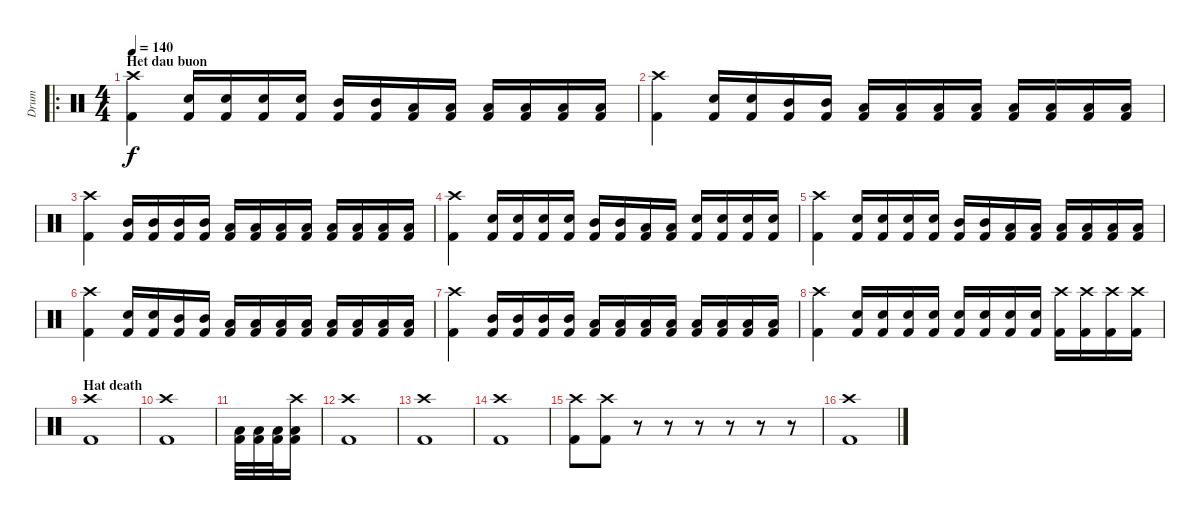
\track ("Drum" "Drum") {instrument percussion}
\staff {score}
\articulation defaults
\ro
\ts (4 4)
\section ("" "Het dau buon")
\tempo 140
\clef neutral
\ks c
("Crash high (hit)" "Kick (hit) 2").4{dy f} ("Snare (hit) 2" "Kick (hit) 2").16 ("Snare (hit) 2" "Kick (hit) 2").16 ("Snare (hit) 2" "Kick (hit) 2").16 ("Snare (hit) 2" "Kick (hit) 2").16 ("Mid Tom (hit)" "Kick (hit) 2").16 ("Mid Tom (hit)" "Kick (hit) 2").16 ("Low Tom (hit)" "Kick (hit) 2").16 ("Low Tom (hit)" "Kick (hit) 2").16 ("Low Floor Tom (hit)" "Kick (hit) 2").16 ("Low Floor Tom (hit)" "Kick (hit) 2").16 ("Low Floor Tom (hit)" "Kick (hit) 2").16 ("Low Floor Tom (hit)" "Kick (hit) 2").16 |
("Crash high (hit)" "Kick (hit) 2").4 ("Snare (hit) 2" "Kick (hit) 2").16 ("Snare (hit) 2" "Kick (hit) 2").16 ("Mid Tom (hit)" "Kick (hit) 2").16 ("Mid Tom (hit)" "Kick (hit) 2").16 ("Low Tom (hit)" "Kick (hit) 2").16 ("Low Tom (hit)" "Kick (hit) 2").16 ("Low Tom (hit)" "Kick (hit) 2").16 ("Low Tom (hit)" "Kick (hit) 2").16 ("Low Floor Tom (hit)" "Kick (hit) 2").16 ("Low Floor Tom (hit)" "Kick (hit) 2").16 ("Low Floor Tom (hit)" "Kick (hit) 2").16 ("Low Floor Tom (hit)" "Kick (hit) 2").16 |
("Crash high (hit)" "Kick (hit) 2").4 ("Mid Tom (hit)" "Kick (hit) 2").16 ("Mid Tom (hit)" "Kick (hit) 2").16 ("Mid Tom (hit)" "Kick (hit) 2").16 ("Mid Tom (hit)" "Kick (hit) 2").16 ("Low Tom (hit)" "Kick (hit) 2").16 ("Low Tom (hit)" "Kick (hit) 2").16 ("Low Tom (hit)" "Kick (hit) 2").16 ("Low Tom (hit)" "Kick (hit) 2").16 ("Low Floor Tom (hit)" "Kick (hit) 2").16 ("Low Floor Tom (hit)" "Kick (hit) 2").16 ("Low Floor Tom (hit)" "Kick (hit) 2").16 ("Low Floor Tom (hit)" "Kick (hit) 2").16 |
("Crash high (hit)" "Kick (hit) 2").4 ("Snare (hit) 2" "Kick (hit) 2").16 ("Snare (hit) 2" "Kick (hit) 2").16 ("Snare (hit) 2" "Kick (hit) 2").16 ("Snare (hit) 2" "Kick (hit) 2").16 ("Mid Tom (hit)" "Kick (hit) 2").16 ("Mid Tom (hit)" "Kick (hit) 2").16 ("Low Tom (hit)" "Kick (hit) 2").16 ("Low Tom (hit)" "Kick (hit) 2").16 ("Snare (hit) 2" "Kick (hit) 2").16 ("Snare (hit) 2" "Kick (hit) 2").16 ("Snare (hit) 2" "Kick (hit) 2").16 ("Snare (hit) 2" "Kick (hit) 2").16 |
("Crash high (hit)" "Kick (hit) 2").4 ("Snare (hit) 2" "Kick (hit) 2").16 ("Snare (hit) 2" "Kick (hit) 2").16 ("Snare (hit) 2" "Kick (hit) 2").16 ("Snare (hit) 2" "Kick (hit) 2").16 ("Mid Tom (hit)" "Kick (hit) 2").16 ("Mid Tom (hit)" "Kick (hit) 2").16 ("Low Tom (hit)" "Kick (hit) 2").16 ("Low Tom (hit)" "Kick (hit) 2").16 ("Low Floor Tom (hit)" "Kick (hit) 2").16 ("Low Floor Tom (hit)" "Kick (hit) 2").16 ("Low Floor Tom (hit)" "Kick (hit) 2").16 ("Low Floor Tom (hit)" "Kick (hit) 2").16 |
("Crash high (hit)" "Kick (hit) 2").4 ("Snare (hit) 2" "Kick (hit) 2").16 ("Snare (hit) 2" "Kick (hit) 2").16 ("Mid Tom (hit)" "Kick (hit) 2").16 ("Mid Tom (hit)" "Kick (hit) 2").16 ("Low Tom (hit)" "Kick (hit) 2").16 ("Low Tom (hit)" "Kick (hit) 2").16 ("Low Tom (hit)" "Kick (hit) 2").16 ("Low Tom (hit)" "Kick (hit) 2").16 ("Low Floor Tom (hit)" "Kick (hit) 2").16 ("Low Floor Tom (hit)" "Kick (hit) 2").16 ("Low Floor Tom (hit)" "Kick (hit) 2").16 ("Low Floor Tom (hit)" "Kick (hit) 2").16 |
("Crash high (hit)" "Kick (hit) 2").4 ("Mid Tom (hit)" "Kick (hit) 2").16 ("Mid Tom (hit)" "Kick (hit) 2").16 ("Mid Tom (hit)" "Kick (hit) 2").16 ("Mid Tom (hit)" "Kick (hit) 2").16 ("Low Tom (hit)" "Kick (hit) 2").16 ("Low Tom (hit)" "Kick (hit) 2").16 ("Low Tom (hit)" "Kick (hit) 2").16 ("Low Tom (hit)" "Kick (hit) 2").16 ("Low Floor Tom (hit)" "Kick (hit) 2").16 ("Low Floor Tom (hit)" "Kick (hit) 2").16 ("Low Floor Tom (hit)" "Kick (hit) 2").16 ("Low Floor Tom (hit)" "Kick (hit) 2").16 |
("Crash high (hit)" "Kick (hit) 2").4 ("Snare (hit) 2" "Kick (hit) 2").16 ("Snare (hit) 2" "Kick (hit) 2").16 ("Snare (hit) 2" "Kick (hit) 2").16 ("Snare (hit) 2" "Kick (hit) 2").16 ("Snare (hit) 2" "Kick (hit) 2").16 ("Snare (hit) 2" "Kick (hit) 2").16 ("Snare (hit) 2" "Kick (hit) 2").16 ("Snare (hit) 2" "Kick (hit) 2").16 ("Crash high (hit)" "Kick (hit) 2").16 ("Crash high (hit)" "Kick (hit) 2").16 ("Crash high (hit)" "Kick (hit) 2").16 ("Crash high (hit)" "Kick (hit) 2").16 |
\section ("" "Hat death")
("Crash high (hit)" "Kick (hit) 2").1 |
("Crash high (hit)" "Kick (hit) 2").1 |
("Low Floor Tom (hit)" "Kick (hit) 2").32 ("Low Floor Tom (hit)" "Kick (hit) 2").32 ("Low Floor Tom (hit)" "Kick (hit) 2").32 ("Low Floor Tom (hit)" "Crash high (hit)" "Kick (hit) 2").16 |
("Crash high (hit)" "Kick (hit) 2").1 |
("Crash high (hit)" "Kick (hit) 2").1 |
("Crash high (hit)" "Kick (hit) 2").1 |
("Crash high (hit)" "Kick (hit) 2").8 ("Crash high (hit)" "Kick (hit) 2").8 r.8 r.8 r.8 r.8 r.8 r.8 |
("Crash high (hit)" "Kick (hit) 2").1
